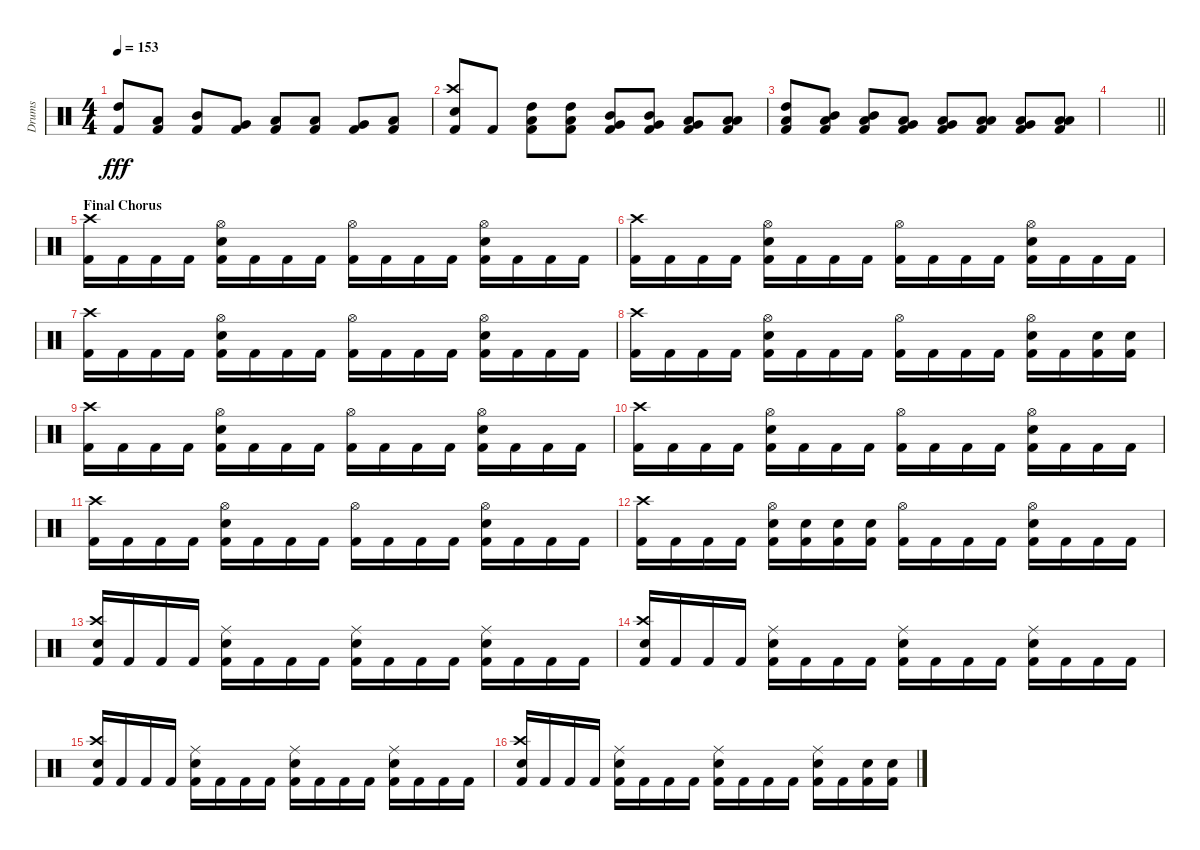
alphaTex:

\track ("Drums" "Drums") {instrument percussion}
\staff {score}
\articulation defaults
\ts (4 4)
\tempo 153
\clef neutral
\ks c
("High Tom (hit)" "Kick (hit) 2").8{dy fff} ("Low Tom (hit)" "Kick (hit) 2").8 ("Mid Tom (hit)" "Kick (hit) 2").8 ("Very Low Tom (hit)" "Kick (hit) 2").8 ("Low Tom (hit)" "Kick (hit) 2").8 ("Low Floor Tom (hit)" "Kick (hit) 2").8 ("Very Low Tom (hit)" "Kick (hit) 2").8 ("Low Floor Tom (hit)" "Kick (hit) 2").8 |
("Crash high (hit)" "Snare (hit) 2" "Kick (hit) 2").8 "Kick (hit) 2".8 ("High Tom (hit)" "Low Tom (hit)" "Kick (hit) 2").8 ("High Tom (hit)" "Low Tom (hit)" "Kick (hit) 2").8 ("Mid Tom (hit)" "Very Low Tom (hit)" "Kick (hit) 2").8 ("Mid Tom (hit)" "Very Low Tom (hit)" "Kick (hit) 2").8 ("Low Tom (hit)" "Very Low Tom (hit)" "Kick (hit) 2").8 ("Low Tom (hit)" "Low Floor Tom (hit)" "Kick (hit) 2").8 |
("High Tom (hit)" "Low Tom (hit)" "Kick (hit) 2").8 ("Mid Tom (hit)" "Low Tom (hit)" "Kick (hit) 2").8 ("Mid Tom (hit)" "Low Tom (hit)" "Kick (hit) 2").8 ("Low Tom (hit)" "Very Low Tom (hit)" "Kick (hit) 2").8 ("Low Tom (hit)" "Very Low Tom (hit)" "Kick (hit) 2").8 ("Low Tom (hit)" "Low Floor Tom (hit)" "Kick (hit) 2").8 ("Very Low Tom (hit)" "Low Tom (hit)" "Kick (hit) 2").8 ("Low Tom (hit)" "Low Floor Tom (hit)" "Kick (hit) 2").8 |
\barLineRight lightlight
|
\section ("" "Final Chorus")
("Crash high (hit)" "Kick (hit) 2").16 "Kick (hit) 2".16 "Kick (hit) 2".16 "Kick (hit) 2".16 ("Hi-Hat (open)" "Snare (hit) 2" "Kick (hit) 2").16 "Kick (hit) 2".16 "Kick (hit) 2".16 "Kick (hit) 2".16 ("Hi-Hat (open)" "Kick (hit) 2").16 "Kick (hit) 2".16 "Kick (hit) 2".16 "Kick (hit) 2".16 ("Hi-Hat (open)" "Snare (hit) 2" "Kick (hit) 2").16 "Kick (hit) 2".16 "Kick (hit) 2".16 "Kick (hit) 2".16 |
("Crash high (hit)" "Kick (hit) 2").16 "Kick (hit) 2".16 "Kick (hit) 2".16 "Kick (hit) 2".16 ("Hi-Hat (open)" "Snare (hit) 2" "Kick (hit) 2").16 "Kick (hit) 2".16 "Kick (hit) 2".16 "Kick (hit) 2".16 ("Hi-Hat (open)" "Kick (hit) 2").16 "Kick (hit) 2".16 "Kick (hit) 2".16 "Kick (hit) 2".16 ("Hi-Hat (open)" "Snare (hit) 2" "Kick (hit) 2").16 "Kick (hit) 2".16 "Kick (hit) 2".16 "Kick (hit) 2".16 |
("Crash high (hit)" "Kick (hit) 2").16 "Kick (hit) 2".16 "Kick (hit) 2".16 "Kick (hit) 2".16 ("Hi-Hat (open)" "Snare (hit) 2" "Kick (hit) 2").16 "Kick (hit) 2".16 "Kick (hit) 2".16 "Kick (hit) 2".16 ("Hi-Hat (open)" "Kick (hit) 2").16 "Kick (hit) 2".16 "Kick (hit) 2".16 "Kick (hit) 2".16 ("Hi-Hat (open)" "Snare (hit) 2" "Kick (hit) 2").16 "Kick (hit) 2".16 "Kick (hit) 2".16 "Kick (hit) 2".16 |
("Crash high (hit)" "Kick (hit) 2").16 "Kick (hit) 2".16 "Kick (hit) 2".16 "Kick (hit) 2".16 ("Hi-Hat (open)" "Snare (hit) 2" "Kick (hit) 2").16 "Kick (hit) 2".16 "Kick (hit) 2".16 "Kick (hit) 2".16 ("Hi-Hat (open)" "Kick (hit) 2").16 "Kick (hit) 2".16 "Kick (hit) 2".16 "Kick (hit) 2".16 ("Hi-Hat (open)" "Snare (hit) 2" "Kick (hit) 2").16 "Kick (hit) 2".16 ("Snare (hit) 2" "Kick (hit) 2").16 ("Snare (hit) 2" "Kick (hit) 2").16 |
("Crash high (hit)" "Kick (hit) 2").16 "Kick (hit) 2".16 "Kick (hit) 2".16 "Kick (hit) 2".16 ("Hi-Hat (open)" "Snare (hit) 2" "Kick (hit) 2").16 "Kick (hit) 2".16 "Kick (hit) 2".16 "Kick (hit) 2".16 ("Hi-Hat (open)" "Kick (hit) 2").16 "Kick (hit) 2".16 "Kick (hit) 2".16 "Kick (hit) 2".16 ("Hi-Hat (open)" "Snare (hit) 2" "Kick (hit) 2").16 "Kick (hit) 2".16 "Kick (hit) 2".16 "Kick (hit) 2".16 |
("Crash high (hit)" "Kick (hit) 2").16 "Kick (hit) 2".16 "Kick (hit) 2".16 "Kick (hit) 2".16 ("Hi-Hat (open)" "Snare (hit) 2" "Kick (hit) 2").16 "Kick (hit) 2".16 "Kick (hit) 2".16 "Kick (hit) 2".16 ("Hi-Hat (open)" "Kick (hit) 2").16 "Kick (hit) 2".16 "Kick (hit) 2".16 "Kick (hit) 2".16 ("Hi-Hat (open)" "Snare (hit) 2" "Kick (hit) 2").16 "Kick (hit) 2".16 "Kick (hit) 2".16 "Kick (hit) 2".16 |
("Crash high (hit)" "Kick (hit) 2").16 "Kick (hit) 2".16 "Kick (hit) 2".16 "Kick (hit) 2".16 ("Hi-Hat (open)" "Snare (hit) 2" "Kick (hit) 2").16 "Kick (hit) 2".16 "Kick (hit) 2".16 "Kick (hit) 2".16 ("Hi-Hat (open)" "Kick (hit) 2").16 "Kick (hit) 2".16 "Kick (hit) 2".16 "Kick (hit) 2".16 ("Hi-Hat (open)" "Snare (hit) 2" "Kick (hit) 2").16 "Kick (hit) 2".16 "Kick (hit) 2".16 "Kick (hit) 2".16 |
("Crash high (hit)" "Kick (hit) 2").16 "Kick (hit) 2".16 "Kick (hit) 2".16 "Kick (hit) 2".16 ("Hi-Hat (open)" "Snare (hit) 2" "Kick (hit) 2").16 ("Snare (hit) 2" "Kick (hit) 2").16 ("Snare (hit) 2" "Kick (hit) 2").16 ("Snare (hit) 2" "Kick (hit) 2").16 ("Hi-Hat (open)" "Kick (hit) 2").16 "Kick (hit) 2".16 "Kick (hit) 2".16 "Kick (hit) 2".16 ("Hi-Hat (open)" "Snare (hit) 2" "Kick (hit) 2").16 "Kick (hit) 2".16 "Kick (hit) 2".16 "Kick (hit) 2".16 |
("Crash high (hit)" "Snare (hit) 2" "Kick (hit) 2").16 "Kick (hit) 2".16 "Kick (hit) 2".16 "Kick (hit) 2".16 ("Ride (middle)" "Snare (hit) 2" "Kick (hit) 2").16 "Kick (hit) 2".16 "Kick (hit) 2".16 "Kick (hit) 2".16 ("Ride (middle)" "Snare (hit) 2" "Kick (hit) 2").16 "Kick (hit) 2".16 "Kick (hit) 2".16 "Kick (hit) 2".16 ("Ride (middle)" "Snare (hit) 2" "Kick (hit) 2").16 "Kick (hit) 2".16 "Kick (hit) 2".16 "Kick (hit) 2".16 |
("Crash high (hit)" "Snare (hit) 2" "Kick (hit) 2").16 "Kick (hit) 2".16 "Kick (hit) 2".16 "Kick (hit) 2".16 ("Ride (middle)" "Snare (hit) 2" "Kick (hit) 2").16 "Kick (hit) 2".16 "Kick (hit) 2".16 "Kick (hit) 2".16 ("Ride (middle)" "Snare (hit) 2" "Kick (hit) 2").16 "Kick (hit) 2".16 "Kick (hit) 2".16 "Kick (hit) 2".16 ("Ride (middle)" "Snare (hit) 2" "Kick (hit) 2").16 "Kick (hit) 2".16 "Kick (hit) 2".16 "Kick (hit) 2".16 |
("Crash high (hit)" "Snare (hit) 2" "Kick (hit) 2").16 "Kick (hit) 2".16 "Kick (hit) 2".16 "Kick (hit) 2".16 ("Ride (middle)" "Snare (hit) 2" "Kick (hit) 2").16 "Kick (hit) 2".16 "Kick (hit) 2".16 "Kick (hit) 2".16 ("Ride (middle)" "Snare (hit) 2" "Kick (hit) 2").16 "Kick (hit) 2".16 "Kick (hit) 2".16 "Kick (hit) 2".16 ("Ride (middle)" "Snare (hit) 2" "Kick (hit) 2").16 "Kick (hit) 2".16 "Kick (hit) 2".16 "Kick (hit) 2".16 |
("Crash high (hit)" "Snare (hit) 2" "Kick (hit) 2").16 "Kick (hit) 2".16 "Kick (hit) 2".16 "Kick (hit) 2".16 ("Ride (middle)" "Snare (hit) 2" "Kick (hit) 2").16 "Kick (hit) 2".16 "Kick (hit) 2".16 "Kick (hit) 2".16 ("Ride (middle)" "Snare (hit) 2" "Kick (hit) 2").16 "Kick (hit) 2".16 "Kick (hit) 2".16 "Kick (hit) 2".16 ("Ride (middle)" "Snare (hit) 2" "Kick (hit) 2").16 "Kick (hit) 2".16 ("Snare (hit) 2" "Kick (hit) 2").16 ("Snare (hit) 2" "Kick (hit) 2").16
